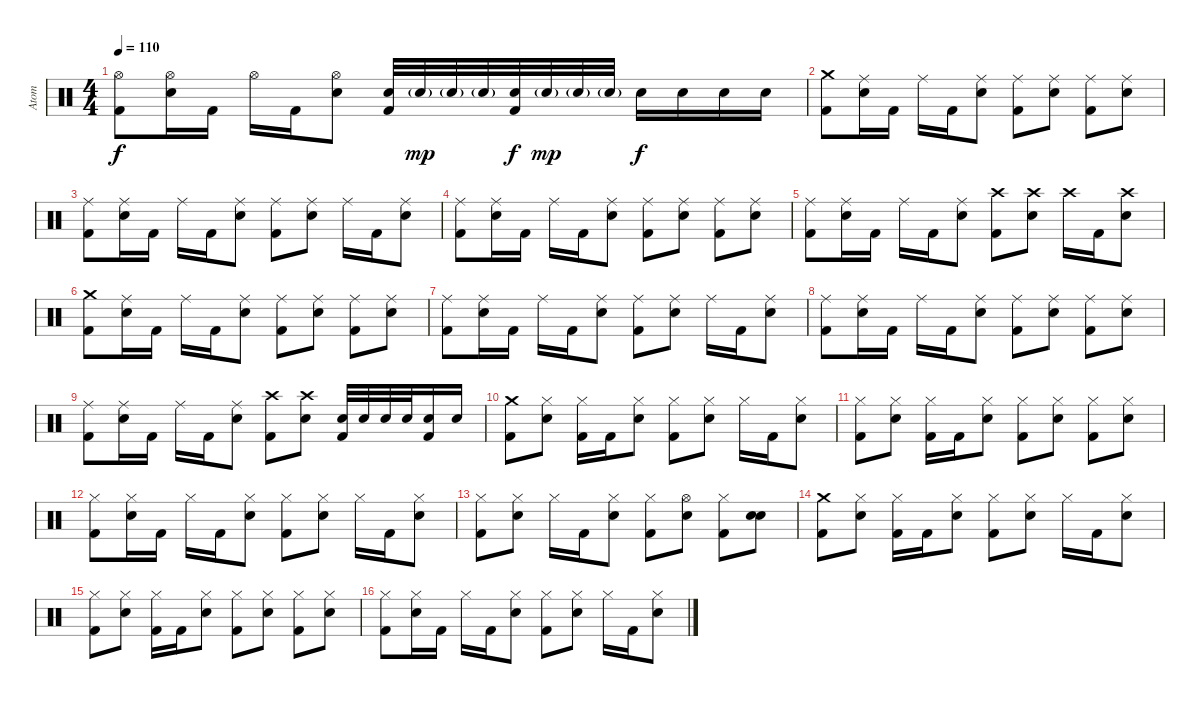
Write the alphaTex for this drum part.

\track ("Atom" "Atom") {instrument percussion}
\staff {score}
\articulation defaults
\ts (4 4)
\tempo 110
\clef neutral
\ks c
("Hi-Hat (open)" "Kick (hit) 2").8{dy f} ("Hi-Hat (open)" "Electric Snare (hit)").16 "Kick (hit) 2".16 "Hi-Hat (open)".16 "Kick (hit) 2".16 ("Hi-Hat (open)" "Electric Snare (hit)").8 ("Electric Snare (hit)" "Kick (hit) 2").32 "Electric Snare (hit)"{g}.32{dy mp} "Electric Snare (hit)"{g}.32 "Electric Snare (hit)"{g}.32 ("Electric Snare (hit)" "Kick (hit) 2").32{dy f} "Electric Snare (hit)"{g}.32{dy mp} "Electric Snare (hit)"{g}.32 "Electric Snare (hit)"{g}.32 "Electric Snare (hit)".16{dy f} "Electric Snare (hit)".16 "Electric Snare (hit)".16 "Electric Snare (hit)".16 |
("Crash medium (hit)" "Kick (hit) 2").8 ("Ride (middle)" "Electric Snare (hit)").16 "Kick (hit) 2".16 "Ride (middle)".16 "Kick (hit) 2".16 ("Ride (middle)" "Electric Snare (hit)").8 ("Ride (middle)" "Kick (hit) 2").8 ("Ride (middle)" "Electric Snare (hit)").8 ("Ride (middle)" "Kick (hit) 2").8 ("Ride (middle)" "Electric Snare (hit)").8 |
("Ride (middle)" "Kick (hit) 2").8 ("Ride (middle)" "Electric Snare (hit)").16 "Kick (hit) 2".16 "Ride (middle)".16 "Kick (hit) 2".16 ("Ride (middle)" "Electric Snare (hit)").8 ("Ride (middle)" "Kick (hit) 2").8 ("Ride (middle)" "Electric Snare (hit)").8 "Ride (middle)".16 "Kick (hit) 2".16 ("Ride (middle)" "Electric Snare (hit)").8 |
("Ride (middle)" "Kick (hit) 2").8 ("Ride (middle)" "Electric Snare (hit)").16 "Kick (hit) 2".16 "Ride (middle)".16 "Kick (hit) 2".16 ("Ride (middle)" "Electric Snare (hit)").8 ("Ride (middle)" "Kick (hit) 2").8 ("Ride (middle)" "Electric Snare (hit)").8 ("Ride (middle)" "Kick (hit) 2").8 ("Ride (middle)" "Electric Snare (hit)").8 |
("Ride (middle)" "Kick (hit) 2").8 ("Ride (middle)" "Electric Snare (hit)").16 "Kick (hit) 2".16 "Ride (middle)".16 "Kick (hit) 2".16 ("Ride (middle)" "Electric Snare (hit)").8 ("Crash high (hit)" "Kick (hit) 2").8 ("Crash high (hit)" "Electric Snare (hit)").8 "Crash high (hit)".16 "Kick (hit) 2".16 ("Crash high (hit)" "Electric Snare (hit)").8 |
("Crash medium (hit)" "Kick (hit) 2").8 ("Ride (middle)" "Electric Snare (hit)").16 "Kick (hit) 2".16 "Ride (middle)".16 "Kick (hit) 2".16 ("Ride (middle)" "Electric Snare (hit)").8 ("Ride (middle)" "Kick (hit) 2").8 ("Ride (middle)" "Electric Snare (hit)").8 ("Ride (middle)" "Kick (hit) 2").8 ("Ride (middle)" "Electric Snare (hit)").8 |
("Ride (middle)" "Kick (hit) 2").8 ("Ride (middle)" "Electric Snare (hit)").16 "Kick (hit) 2".16 "Ride (middle)".16 "Kick (hit) 2".16 ("Ride (middle)" "Electric Snare (hit)").8 ("Ride (middle)" "Kick (hit) 2").8 ("Ride (middle)" "Electric Snare (hit)").8 "Ride (middle)".16 "Kick (hit) 2".16 ("Ride (middle)" "Electric Snare (hit)").8 |
("Ride (middle)" "Kick (hit) 2").8 ("Ride (middle)" "Electric Snare (hit)").16 "Kick (hit) 2".16 "Ride (middle)".16 "Kick (hit) 2".16 ("Ride (middle)" "Electric Snare (hit)").8 ("Ride (middle)" "Kick (hit) 2").8 ("Ride (middle)" "Electric Snare (hit)").8 ("Ride (middle)" "Kick (hit) 2").8 ("Ride (middle)" "Electric Snare (hit)").8 |
("Ride (middle)" "Kick (hit) 2").8 ("Ride (middle)" "Electric Snare (hit)").16 "Kick (hit) 2".16 "Ride (middle)".16 "Kick (hit) 2".16 ("Ride (middle)" "Electric Snare (hit)").8 ("Crash high (hit)" "Kick (hit) 2").8 ("Crash high (hit)" "Electric Snare (hit)").8 ("Electric Snare (hit)" "Kick (hit) 2").32 "Electric Snare (hit)".32 "Electric Snare (hit)".32 "Electric Snare (hit)".32 ("Electric Snare (hit)" "Kick (hit) 2").16 "Electric Snare (hit)".16 |
("Crash medium (hit)" "Kick (hit) 2").8 ("Hi-Hat (closed)" "Electric Snare (hit)").8 ("Hi-Hat (closed)" "Kick (hit) 2").16 "Kick (hit) 2".16 ("Hi-Hat (closed)" "Electric Snare (hit)").8 ("Hi-Hat (closed)" "Kick (hit) 2").8 ("Hi-Hat (closed)" "Electric Snare (hit)").8 "Hi-Hat (closed)".16 "Kick (hit) 2".16 ("Hi-Hat (closed)" "Electric Snare (hit)").8 |
("Hi-Hat (closed)" "Kick (hit) 2").8 ("Hi-Hat (closed)" "Electric Snare (hit)").8 ("Hi-Hat (closed)" "Kick (hit) 2").16 "Kick (hit) 2".16 ("Hi-Hat (closed)" "Electric Snare (hit)").8 ("Hi-Hat (closed)" "Kick (hit) 2").8 ("Hi-Hat (closed)" "Electric Snare (hit)").8 ("Hi-Hat (closed)" "Kick (hit) 2").8 ("Hi-Hat (closed)" "Electric Snare (hit)").8 |
("Hi-Hat (closed)" "Kick (hit) 2").8 ("Hi-Hat (closed)" "Electric Snare (hit)").16 "Kick (hit) 2".16 "Hi-Hat (closed)".16 "Kick (hit) 2".16 ("Hi-Hat (closed)" "Electric Snare (hit)").8 ("Hi-Hat (closed)" "Kick (hit) 2").8 ("Hi-Hat (closed)" "Electric Snare (hit)").8 "Hi-Hat (closed)".16 "Kick (hit) 2".16 ("Hi-Hat (closed)" "Electric Snare (hit)").8 |
("Hi-Hat (closed)" "Kick (hit) 2").8 ("Hi-Hat (closed)" "Electric Snare (hit)").8 "Hi-Hat (closed)".16 "Kick (hit) 2".16 ("Hi-Hat (closed)" "Electric Snare (hit)").8 ("Hi-Hat (closed)" "Kick (hit) 2").8 ("Hi-Hat (open)" "Electric Snare (hit)").8 ("Hi-Hat (closed)" "Kick (hit) 2").8 ("Electric Snare (hit)" "Electric Snare (hit)").8{bu 120} |
("Crash medium (hit)" "Kick (hit) 2").8 ("Hi-Hat (closed)" "Electric Snare (hit)").8 ("Hi-Hat (closed)" "Kick (hit) 2").16 "Kick (hit) 2".16 ("Hi-Hat (closed)" "Electric Snare (hit)").8 ("Hi-Hat (closed)" "Kick (hit) 2").8 ("Hi-Hat (closed)" "Electric Snare (hit)").8 "Hi-Hat (closed)".16 "Kick (hit) 2".16 ("Hi-Hat (closed)" "Electric Snare (hit)").8 |
("Hi-Hat (closed)" "Kick (hit) 2").8 ("Hi-Hat (closed)" "Electric Snare (hit)").8 ("Hi-Hat (closed)" "Kick (hit) 2").16 "Kick (hit) 2".16 ("Hi-Hat (closed)" "Electric Snare (hit)").8 ("Hi-Hat (closed)" "Kick (hit) 2").8 ("Hi-Hat (closed)" "Electric Snare (hit)").8 ("Hi-Hat (closed)" "Kick (hit) 2").8 ("Hi-Hat (closed)" "Electric Snare (hit)").8 |
("Hi-Hat (closed)" "Kick (hit) 2").8 ("Hi-Hat (closed)" "Electric Snare (hit)").16 "Kick (hit) 2".16 "Hi-Hat (closed)".16 "Kick (hit) 2".16 ("Hi-Hat (closed)" "Electric Snare (hit)").8 ("Hi-Hat (closed)" "Kick (hit) 2").8 ("Hi-Hat (closed)" "Electric Snare (hit)").8 "Hi-Hat (closed)".16 "Kick (hit) 2".16 ("Hi-Hat (closed)" "Electric Snare (hit)").8
